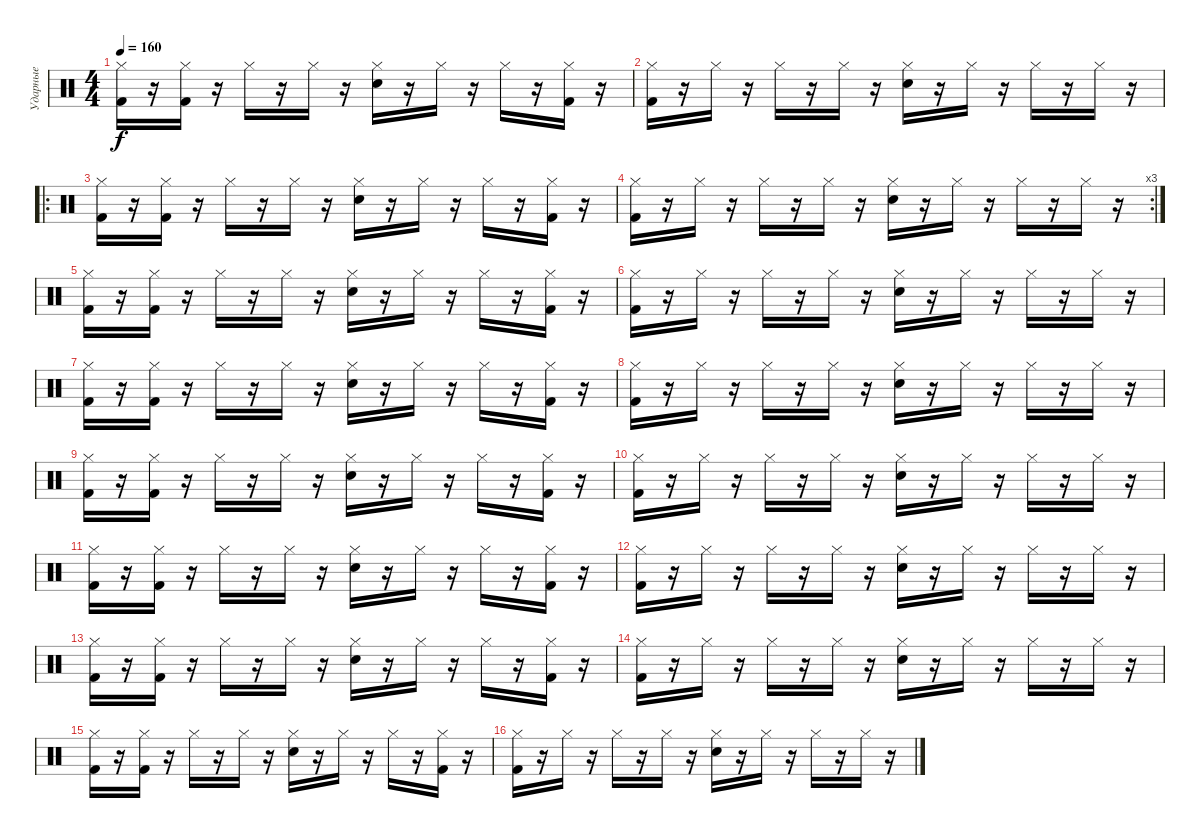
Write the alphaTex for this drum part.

\track ("Ударные" "Ударные") {instrument percussion}
\staff {score}
\articulation defaults
\ts (4 4)
\tempo 160
\clef neutral
\ks c
("Kick (hit) 2" "Hi-Hat (closed)").16{dy f} r.16 ("Kick (hit) 2" "Hi-Hat (closed)").16 r.16 "Hi-Hat (closed)".16 r.16 "Hi-Hat (closed)".16 r.16 ("Snare (hit) 2" "Hi-Hat (closed)").16 r.16 "Hi-Hat (closed)".16 r.16 "Hi-Hat (closed)".16 r.16 ("Kick (hit) 2" "Hi-Hat (closed)").16 r.16 |
("Kick (hit) 2" "Hi-Hat (closed)").16 r.16 "Hi-Hat (closed)".16 r.16 "Hi-Hat (closed)".16 r.16 "Hi-Hat (closed)".16 r.16 ("Snare (hit) 2" "Hi-Hat (closed)").16 r.16 "Hi-Hat (closed)".16 r.16 "Hi-Hat (closed)".16 r.16 "Hi-Hat (closed)".16 r.16 |
\ro
("Kick (hit) 2" "Hi-Hat (closed)").16 r.16 ("Kick (hit) 2" "Hi-Hat (closed)").16 r.16 "Hi-Hat (closed)".16 r.16 "Hi-Hat (closed)".16 r.16 ("Snare (hit) 2" "Hi-Hat (closed)").16 r.16 "Hi-Hat (closed)".16 r.16 "Hi-Hat (closed)".16 r.16 ("Kick (hit) 2" "Hi-Hat (closed)").16 r.16 |
\rc 3
("Kick (hit) 2" "Hi-Hat (closed)").16 r.16 "Hi-Hat (closed)".16 r.16 "Hi-Hat (closed)".16 r.16 "Hi-Hat (closed)".16 r.16 ("Snare (hit) 2" "Hi-Hat (closed)").16 r.16 "Hi-Hat (closed)".16 r.16 "Hi-Hat (closed)".16 r.16 "Hi-Hat (closed)".16 r.16 |
("Kick (hit) 2" "Hi-Hat (closed)").16 r.16 ("Kick (hit) 2" "Hi-Hat (closed)").16 r.16 "Hi-Hat (closed)".16 r.16 "Hi-Hat (closed)".16 r.16 ("Snare (hit) 2" "Hi-Hat (closed)").16 r.16 "Hi-Hat (closed)".16 r.16 "Hi-Hat (closed)".16 r.16 ("Kick (hit) 2" "Hi-Hat (closed)").16 r.16 |
("Kick (hit) 2" "Hi-Hat (closed)").16 r.16 "Hi-Hat (closed)".16 r.16 "Hi-Hat (closed)".16 r.16 "Hi-Hat (closed)".16 r.16 ("Snare (hit) 2" "Hi-Hat (closed)").16 r.16 "Hi-Hat (closed)".16 r.16 "Hi-Hat (closed)".16 r.16 "Hi-Hat (closed)".16 r.16 |
("Kick (hit) 2" "Hi-Hat (closed)").16 r.16 ("Kick (hit) 2" "Hi-Hat (closed)").16 r.16 "Hi-Hat (closed)".16 r.16 "Hi-Hat (closed)".16 r.16 ("Snare (hit) 2" "Hi-Hat (closed)").16 r.16 "Hi-Hat (closed)".16 r.16 "Hi-Hat (closed)".16 r.16 ("Kick (hit) 2" "Hi-Hat (closed)").16 r.16 |
("Kick (hit) 2" "Hi-Hat (closed)").16 r.16 "Hi-Hat (closed)".16 r.16 "Hi-Hat (closed)".16 r.16 "Hi-Hat (closed)".16 r.16 ("Snare (hit) 2" "Hi-Hat (closed)").16 r.16 "Hi-Hat (closed)".16 r.16 "Hi-Hat (closed)".16 r.16 "Hi-Hat (closed)".16 r.16 |
("Kick (hit) 2" "Hi-Hat (closed)").16 r.16 ("Kick (hit) 2" "Hi-Hat (closed)").16 r.16 "Hi-Hat (closed)".16 r.16 "Hi-Hat (closed)".16 r.16 ("Snare (hit) 2" "Hi-Hat (closed)").16 r.16 "Hi-Hat (closed)".16 r.16 "Hi-Hat (closed)".16 r.16 ("Kick (hit) 2" "Hi-Hat (closed)").16 r.16 |
("Kick (hit) 2" "Hi-Hat (closed)").16 r.16 "Hi-Hat (closed)".16 r.16 "Hi-Hat (closed)".16 r.16 "Hi-Hat (closed)".16 r.16 ("Snare (hit) 2" "Hi-Hat (closed)").16 r.16 "Hi-Hat (closed)".16 r.16 "Hi-Hat (closed)".16 r.16 "Hi-Hat (closed)".16 r.16 |
("Kick (hit) 2" "Hi-Hat (closed)").16 r.16 ("Kick (hit) 2" "Hi-Hat (closed)").16 r.16 "Hi-Hat (closed)".16 r.16 "Hi-Hat (closed)".16 r.16 ("Snare (hit) 2" "Hi-Hat (closed)").16 r.16 "Hi-Hat (closed)".16 r.16 "Hi-Hat (closed)".16 r.16 ("Kick (hit) 2" "Hi-Hat (closed)").16 r.16 |
("Kick (hit) 2" "Hi-Hat (closed)").16 r.16 "Hi-Hat (closed)".16 r.16 "Hi-Hat (closed)".16 r.16 "Hi-Hat (closed)".16 r.16 ("Snare (hit) 2" "Hi-Hat (closed)").16 r.16 "Hi-Hat (closed)".16 r.16 "Hi-Hat (closed)".16 r.16 "Hi-Hat (closed)".16 r.16 |
("Kick (hit) 2" "Hi-Hat (closed)").16 r.16 ("Kick (hit) 2" "Hi-Hat (closed)").16 r.16 "Hi-Hat (closed)".16 r.16 "Hi-Hat (closed)".16 r.16 ("Snare (hit) 2" "Hi-Hat (closed)").16 r.16 "Hi-Hat (closed)".16 r.16 "Hi-Hat (closed)".16 r.16 ("Kick (hit) 2" "Hi-Hat (closed)").16 r.16 |
("Kick (hit) 2" "Hi-Hat (closed)").16 r.16 "Hi-Hat (closed)".16 r.16 "Hi-Hat (closed)".16 r.16 "Hi-Hat (closed)".16 r.16 ("Snare (hit) 2" "Hi-Hat (closed)").16 r.16 "Hi-Hat (closed)".16 r.16 "Hi-Hat (closed)".16 r.16 "Hi-Hat (closed)".16 r.16 |
("Kick (hit) 2" "Hi-Hat (closed)").16 r.16 ("Kick (hit) 2" "Hi-Hat (closed)").16 r.16 "Hi-Hat (closed)".16 r.16 "Hi-Hat (closed)".16 r.16 ("Snare (hit) 2" "Hi-Hat (closed)").16 r.16 "Hi-Hat (closed)".16 r.16 "Hi-Hat (closed)".16 r.16 ("Kick (hit) 2" "Hi-Hat (closed)").16 r.16 |
("Kick (hit) 2" "Hi-Hat (closed)").16 r.16 "Hi-Hat (closed)".16 r.16 "Hi-Hat (closed)".16 r.16 "Hi-Hat (closed)".16 r.16 ("Snare (hit) 2" "Hi-Hat (closed)").16 r.16 "Hi-Hat (closed)".16 r.16 "Hi-Hat (closed)".16 r.16 "Hi-Hat (closed)".16 r.16
